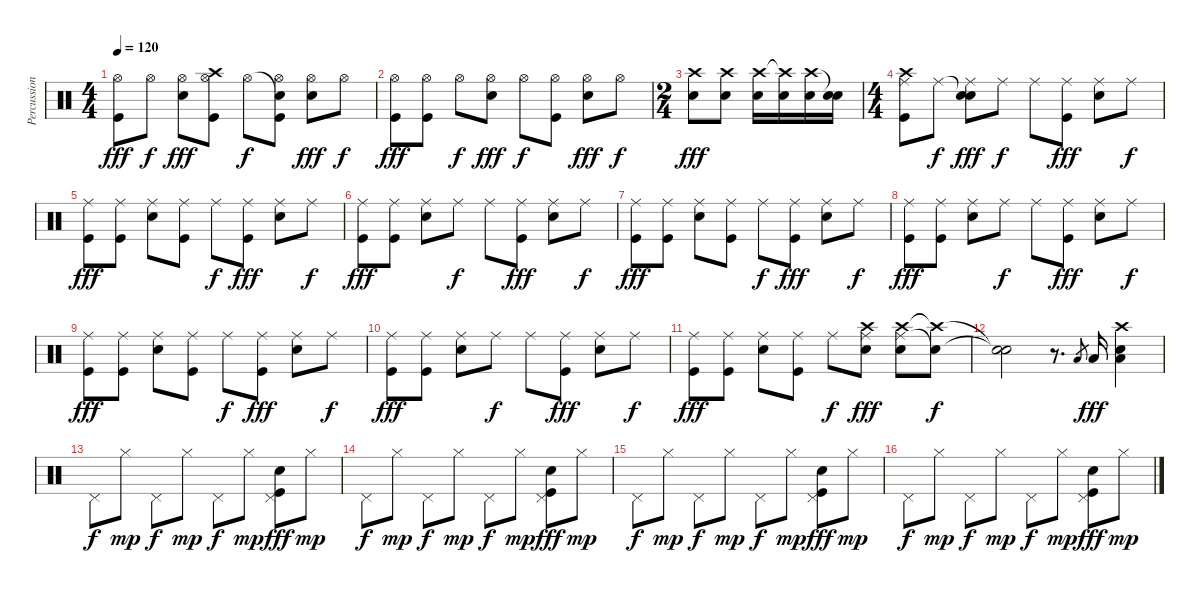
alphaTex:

\track ("Percussion" "Percussion") {solo instrument percussion}
\staff {score}
\articulation defaults
\ts (4 4)
\tempo 120
\clef neutral
\ks c
("Hi-Hat (open)" "Kick (hit)").8{dy fff} "Hi-Hat (open)".8{dy f} ("Hi-Hat (open)" "Snare (hit) 2").8{dy fff} ("Crash high (hit)" "Hi-Hat (open)" "Kick (hit)").8 "Hi-Hat (open)".8{dy f} ("Snare (hit)"{t} "Hi-Hat (open)" "Kick (hit)").8 ("Hi-Hat (open)" "Snare (hit) 2").8{dy fff} "Hi-Hat (open)".8{dy f} |
("Hi-Hat (open)" "Kick (hit)").8{dy fff} ("Hi-Hat (open)" "Kick (hit)").8 "Hi-Hat (open)".8{dy f} ("Hi-Hat (open)" "Snare (hit) 2").8{dy fff} "Hi-Hat (open)".8{dy f} ("Hi-Hat (open)" "Kick (hit)").8 ("Hi-Hat (open)" "Snare (hit) 2").8{dy fff} "Hi-Hat (open)".8{dy f} |
\ts (2 4)
("Crash high (hit)" "Snare (hit) 2").8{dy fff} ("Crash high (hit)" "Snare (hit) 2").8 ("Crash high (hit)" "Snare (hit) 2").16 ("Crash high (hit)"{t} "Snare (hit) 2").16 ("Crash high (hit)" "Snare (hit) 2").16 ("Snare (hit)"{t} "Snare (hit) 2").16 |
\ts (4 4)
("Crash high (hit)" "Ride (middle)" "Kick (hit)").8 "Ride (middle)".8{dy f} ("Snare (hit)"{t} "Ride (middle)" "Snare (hit) 2").8{dy fff} "Ride (middle)".8{dy f} "Ride (middle)".8 ("Ride (middle)" "Kick (hit)").8{dy fff} ("Ride (middle)" "Snare (hit) 2").8 "Ride (middle)".8{dy f} |
("Ride (middle)" "Kick (hit)").8{dy fff} ("Ride (middle)" "Kick (hit)").8 ("Ride (middle)" "Snare (hit) 2").8 ("Ride (middle)" "Kick (hit)").8 "Ride (middle)".8{dy f} ("Ride (middle)" "Kick (hit)").8{dy fff} ("Ride (middle)" "Snare (hit) 2").8 "Ride (middle)".8{dy f} |
("Ride (middle)" "Kick (hit)").8{dy fff} ("Ride (middle)" "Kick (hit)").8 ("Ride (middle)" "Snare (hit) 2").8 "Ride (middle)".8{dy f} "Ride (middle)".8 ("Ride (middle)" "Kick (hit)").8{dy fff} ("Ride (middle)" "Snare (hit) 2").8 "Ride (middle)".8{dy f} |
("Ride (middle)" "Kick (hit)").8{dy fff} ("Ride (middle)" "Kick (hit)").8 ("Ride (middle)" "Snare (hit) 2").8 ("Ride (middle)" "Kick (hit)").8 "Ride (middle)".8{dy f} ("Ride (middle)" "Kick (hit)").8{dy fff} ("Ride (middle)" "Snare (hit) 2").8 "Ride (middle)".8{dy f} |
("Ride (middle)" "Kick (hit)").8{dy fff} ("Ride (middle)" "Kick (hit)").8 ("Ride (middle)" "Snare (hit) 2").8 "Ride (middle)".8{dy f} "Ride (middle)".8 ("Ride (middle)" "Kick (hit)").8{dy fff} ("Ride (middle)" "Snare (hit) 2").8 "Ride (middle)".8{dy f} |
("Ride (middle)" "Kick (hit)").8{dy fff} ("Ride (middle)" "Kick (hit)").8 ("Ride (middle)" "Snare (hit) 2").8 ("Ride (middle)" "Kick (hit)").8 "Ride (middle)".8{dy f} ("Ride (middle)" "Kick (hit)").8{dy fff} ("Ride (middle)" "Snare (hit) 2").8 "Ride (middle)".8{dy f} |
("Ride (middle)" "Kick (hit)").8{dy fff} ("Ride (middle)" "Kick (hit)").8 ("Ride (middle)" "Snare (hit) 2").8 "Ride (middle)".8{dy f} "Ride (middle)".8 ("Ride (middle)" "Kick (hit)").8{dy fff} ("Ride (middle)" "Snare (hit) 2").8 "Ride (middle)".8{dy f} |
("Ride (middle)" "Kick (hit)").8{dy fff} ("Ride (middle)" "Kick (hit)").8 ("Ride (middle)" "Snare (hit) 2").8 ("Ride (middle)" "Kick (hit)").8 "Ride (middle)".8{dy f} ("Crash high (hit)" "Ride (middle)" "Snare (hit) 2").8{dy fff} ("Crash high (hit)" "Ride (middle)" "Snare (hit) 2").8 ("Crash high (hit)"{t} "Snare (hit) 2"{t}).8{dy f} |
("Snare (hit)"{t} "Snare (hit)"{t}).2 r.8{d} "Low Tom (hit)".8{gr} "Low Tom (hit)".16{dy fff} ("Snare (hit) 2" "Low Tom (hit)" "Crash high (hit)").4 |
"Pedal Hi-Hat (hit)".8{dy f} "Hi-Hat (closed)".8{dy mp} "Pedal Hi-Hat (hit)".8{dy f} "Hi-Hat (closed)".8{dy mp} "Pedal Hi-Hat (hit)".8{dy f} "Hi-Hat (closed)".8{dy mp} ("Pedal Hi-Hat (hit)" "Snare (hit) 2" "Kick (hit)").8{dy fff} "Hi-Hat (closed)".8{dy mp} |
"Pedal Hi-Hat (hit)".8{dy f} "Hi-Hat (closed)".8{dy mp} "Pedal Hi-Hat (hit)".8{dy f} "Hi-Hat (closed)".8{dy mp} "Pedal Hi-Hat (hit)".8{dy f} "Hi-Hat (closed)".8{dy mp} ("Pedal Hi-Hat (hit)" "Snare (hit) 2" "Kick (hit)").8{dy fff} "Hi-Hat (closed)".8{dy mp} |
"Pedal Hi-Hat (hit)".8{dy f} "Hi-Hat (closed)".8{dy mp} "Pedal Hi-Hat (hit)".8{dy f} "Hi-Hat (closed)".8{dy mp} "Pedal Hi-Hat (hit)".8{dy f} "Hi-Hat (closed)".8{dy mp} ("Pedal Hi-Hat (hit)" "Snare (hit) 2" "Kick (hit)").8{dy fff} "Hi-Hat (closed)".8{dy mp} |
"Pedal Hi-Hat (hit)".8{dy f} "Hi-Hat (closed)".8{dy mp} "Pedal Hi-Hat (hit)".8{dy f} "Hi-Hat (closed)".8{dy mp} "Pedal Hi-Hat (hit)".8{dy f} "Hi-Hat (closed)".8{dy mp} ("Pedal Hi-Hat (hit)" "Snare (hit) 2" "Kick (hit)").8{dy fff} "Hi-Hat (closed)".8{dy mp}
